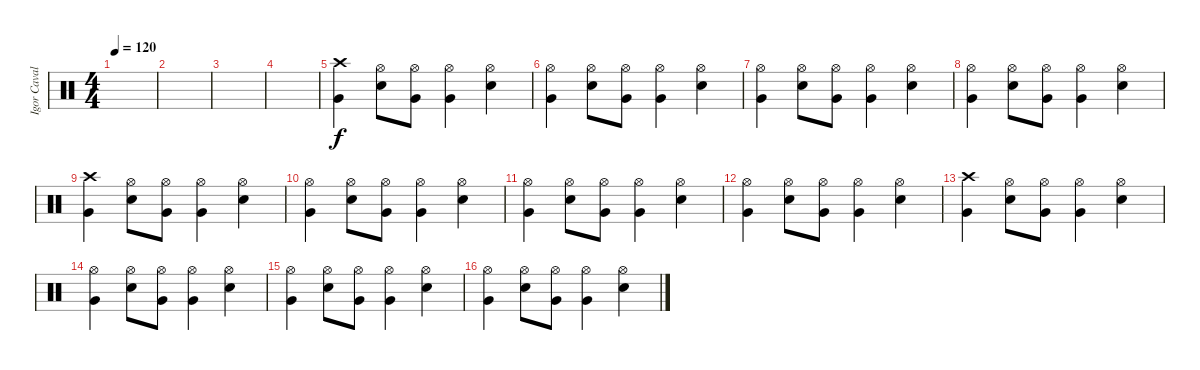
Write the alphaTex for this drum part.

\track ("Igor Cavalera" "Igor Caval") {instrument percussion}
\staff {score}
\articulation defaults
\ts (4 4)
\tempo 120
\clef neutral
\ks c
|
|
|
|
("Crash high (hit)" "Very Low Tom (hit)").4 ("Hi-Hat (open)" "Snare (hit) 2").8 ("Hi-Hat (open)" "Very Low Tom (hit)").8 ("Hi-Hat (open)" "Very Low Tom (hit)").4 ("Hi-Hat (open)" "Snare (hit) 2").4 |
("Hi-Hat (open)" "Very Low Tom (hit)").4 ("Hi-Hat (open)" "Snare (hit) 2").8 ("Hi-Hat (open)" "Very Low Tom (hit)").8 ("Hi-Hat (open)" "Very Low Tom (hit)").4 ("Hi-Hat (open)" "Snare (hit) 2").4 |
("Hi-Hat (open)" "Very Low Tom (hit)").4 ("Hi-Hat (open)" "Snare (hit) 2").8 ("Hi-Hat (open)" "Very Low Tom (hit)").8 ("Hi-Hat (open)" "Very Low Tom (hit)").4 ("Hi-Hat (open)" "Snare (hit) 2").4 |
("Hi-Hat (open)" "Very Low Tom (hit)").4 ("Hi-Hat (open)" "Snare (hit) 2").8 ("Hi-Hat (open)" "Very Low Tom (hit)").8 ("Hi-Hat (open)" "Very Low Tom (hit)").4 ("Hi-Hat (open)" "Snare (hit) 2").4 |
("Crash high (hit)" "Very Low Tom (hit)").4 ("Hi-Hat (open)" "Snare (hit) 2").8 ("Hi-Hat (open)" "Very Low Tom (hit)").8 ("Hi-Hat (open)" "Very Low Tom (hit)").4 ("Hi-Hat (open)" "Snare (hit) 2").4 |
("Hi-Hat (open)" "Very Low Tom (hit)").4 ("Hi-Hat (open)" "Snare (hit) 2").8 ("Hi-Hat (open)" "Very Low Tom (hit)").8 ("Hi-Hat (open)" "Very Low Tom (hit)").4 ("Hi-Hat (open)" "Snare (hit) 2").4 |
("Hi-Hat (open)" "Very Low Tom (hit)").4 ("Hi-Hat (open)" "Snare (hit) 2").8 ("Hi-Hat (open)" "Very Low Tom (hit)").8 ("Hi-Hat (open)" "Very Low Tom (hit)").4 ("Hi-Hat (open)" "Snare (hit) 2").4 |
("Hi-Hat (open)" "Very Low Tom (hit)").4 ("Hi-Hat (open)" "Snare (hit) 2").8 ("Hi-Hat (open)" "Very Low Tom (hit)").8 ("Hi-Hat (open)" "Very Low Tom (hit)").4 ("Hi-Hat (open)" "Snare (hit) 2").4 |
("Crash high (hit)" "Very Low Tom (hit)").4 ("Hi-Hat (open)" "Snare (hit) 2").8 ("Hi-Hat (open)" "Very Low Tom (hit)").8 ("Hi-Hat (open)" "Very Low Tom (hit)").4 ("Hi-Hat (open)" "Snare (hit) 2").4 |
("Hi-Hat (open)" "Very Low Tom (hit)").4 ("Hi-Hat (open)" "Snare (hit) 2").8 ("Hi-Hat (open)" "Very Low Tom (hit)").8 ("Hi-Hat (open)" "Very Low Tom (hit)").4 ("Hi-Hat (open)" "Snare (hit) 2").4 |
("Hi-Hat (open)" "Very Low Tom (hit)").4 ("Hi-Hat (open)" "Snare (hit) 2").8 ("Hi-Hat (open)" "Very Low Tom (hit)").8 ("Hi-Hat (open)" "Very Low Tom (hit)").4 ("Hi-Hat (open)" "Snare (hit) 2").4 |
("Hi-Hat (open)" "Very Low Tom (hit)").4 ("Hi-Hat (open)" "Snare (hit) 2").8 ("Hi-Hat (open)" "Very Low Tom (hit)").8 ("Hi-Hat (open)" "Very Low Tom (hit)").4 ("Hi-Hat (open)" "Snare (hit) 2").4
